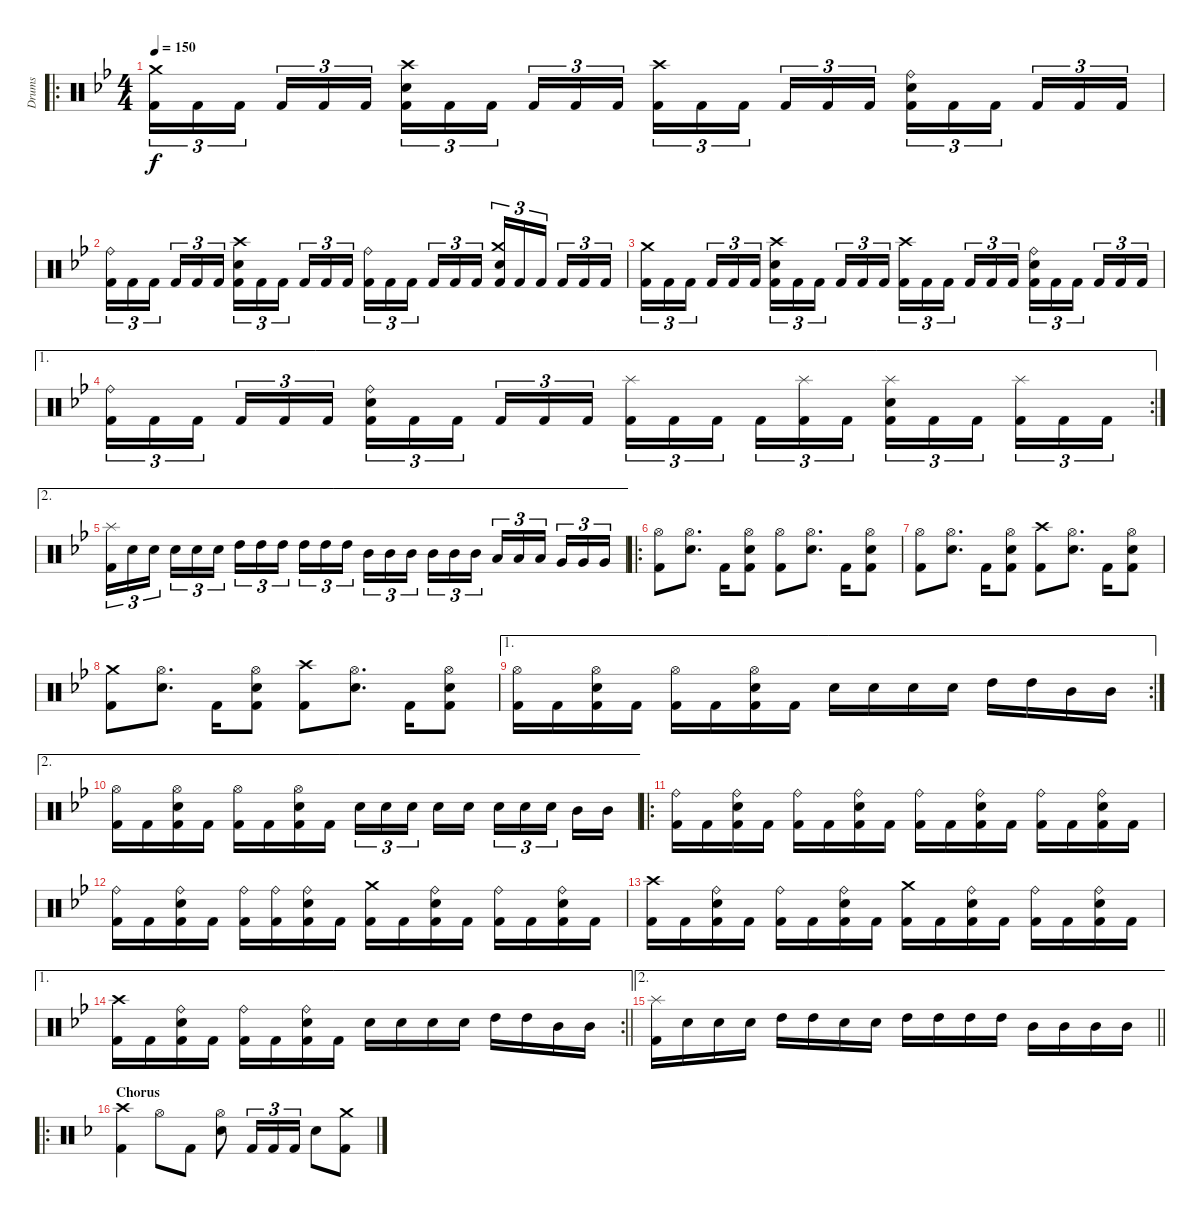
\track ("Drums" "Drums") {instrument percussion}
\staff {score}
\articulation defaults
\ro
\ts (4 4)
\tempo 150
\clef neutral
\ks gminor
("Kick (hit) 2" "Crash medium (hit)").16{tu (3 2) dy f} "Kick (hit) 2".16{tu (3 2)} "Kick (hit) 2".16{tu (3 2) beam splitsecondary} "Kick (hit) 2".16{tu (3 2)} "Kick (hit) 2".16{tu (3 2)} "Kick (hit) 2".16{tu (3 2)} ("Kick (hit) 2" "Snare (hit) 2" "Crash high (hit)").16{tu (3 2)} "Kick (hit) 2".16{tu (3 2)} "Kick (hit) 2".16{tu (3 2) beam splitsecondary} "Kick (hit) 2".16{tu (3 2)} "Kick (hit) 2".16{tu (3 2)} "Kick (hit) 2".16{tu (3 2)} ("Kick (hit) 2" "Crash high (hit)").16{tu (3 2)} "Kick (hit) 2".16{tu (3 2)} "Kick (hit) 2".16{tu (3 2) beam splitsecondary} "Kick (hit) 2".16{tu (3 2)} "Kick (hit) 2".16{tu (3 2)} "Kick (hit) 2".16{tu (3 2)} ("Kick (hit) 2" "Snare (hit) 2" "Ride (bell)").16{tu (3 2)} "Kick (hit) 2".16{tu (3 2)} "Kick (hit) 2".16{tu (3 2) beam splitsecondary} "Kick (hit) 2".16{tu (3 2)} "Kick (hit) 2".16{tu (3 2)} "Kick (hit) 2".16{tu (3 2)} |
("Kick (hit) 2" "Ride (bell)").16{tu (3 2)} "Kick (hit) 2".16{tu (3 2)} "Kick (hit) 2".16{tu (3 2) beam splitsecondary} "Kick (hit) 2".16{tu (3 2)} "Kick (hit) 2".16{tu (3 2)} "Kick (hit) 2".16{tu (3 2)} ("Kick (hit) 2" "Snare (hit) 2" "Crash high (hit)").16{tu (3 2)} "Kick (hit) 2".16{tu (3 2)} "Kick (hit) 2".16{tu (3 2) beam splitsecondary} "Kick (hit) 2".16{tu (3 2)} "Kick (hit) 2".16{tu (3 2)} "Kick (hit) 2".16{tu (3 2)} ("Kick (hit) 2" "Ride (bell)").16{tu (3 2)} "Kick (hit) 2".16{tu (3 2)} "Kick (hit) 2".16{tu (3 2) beam splitsecondary} "Kick (hit) 2".16{tu (3 2)} "Kick (hit) 2".16{tu (3 2)} "Kick (hit) 2".16{tu (3 2)} ("Kick (hit) 2" "Snare (hit) 2" "Crash medium (hit)").16{tu (3 2)} "Kick (hit) 2".16{tu (3 2)} "Kick (hit) 2".16{tu (3 2) beam splitsecondary} "Kick (hit) 2".16{tu (3 2)} "Kick (hit) 2".16{tu (3 2)} "Kick (hit) 2".16{tu (3 2)} |
("Kick (hit) 2" "Crash medium (hit)").16{tu (3 2)} "Kick (hit) 2".16{tu (3 2)} "Kick (hit) 2".16{tu (3 2) beam splitsecondary} "Kick (hit) 2".16{tu (3 2)} "Kick (hit) 2".16{tu (3 2)} "Kick (hit) 2".16{tu (3 2)} ("Kick (hit) 2" "Snare (hit) 2" "Crash high (hit)").16{tu (3 2)} "Kick (hit) 2".16{tu (3 2)} "Kick (hit) 2".16{tu (3 2) beam splitsecondary} "Kick (hit) 2".16{tu (3 2)} "Kick (hit) 2".16{tu (3 2)} "Kick (hit) 2".16{tu (3 2)} ("Kick (hit) 2" "Crash high (hit)").16{tu (3 2)} "Kick (hit) 2".16{tu (3 2)} "Kick (hit) 2".16{tu (3 2) beam splitsecondary} "Kick (hit) 2".16{tu (3 2)} "Kick (hit) 2".16{tu (3 2)} "Kick (hit) 2".16{tu (3 2)} ("Kick (hit) 2" "Snare (hit) 2" "Ride (bell)").16{tu (3 2)} "Kick (hit) 2".16{tu (3 2)} "Kick (hit) 2".16{tu (3 2) beam splitsecondary} "Kick (hit) 2".16{tu (3 2)} "Kick (hit) 2".16{tu (3 2)} "Kick (hit) 2".16{tu (3 2)} |
\ae 1
\rc 2
("Kick (hit) 2" "Ride (bell)").16{tu (3 2)} "Kick (hit) 2".16{tu (3 2)} "Kick (hit) 2".16{tu (3 2) beam splitsecondary} "Kick (hit) 2".16{tu (3 2)} "Kick (hit) 2".16{tu (3 2)} "Kick (hit) 2".16{tu (3 2)} ("Kick (hit) 2" "Snare (hit) 2" "Ride (bell)").16{tu (3 2)} "Kick (hit) 2".16{tu (3 2)} "Kick (hit) 2".16{tu (3 2) beam splitsecondary} "Kick (hit) 2".16{tu (3 2)} "Kick (hit) 2".16{tu (3 2)} "Kick (hit) 2".16{tu (3 2)} ("Kick (hit) 2" "Splash (hit)").16{tu (3 2)} "Kick (hit) 2".16{tu (3 2)} "Kick (hit) 2".16{tu (3 2) beam splitsecondary} "Kick (hit) 2".16{tu (3 2)} ("Kick (hit) 2" "Splash (hit)").16{tu (3 2)} "Kick (hit) 2".16{tu (3 2)} ("Kick (hit) 2" "Snare (hit) 2" "Splash (hit)").16{tu (3 2)} "Kick (hit) 2".16{tu (3 2)} "Kick (hit) 2".16{tu (3 2) beam splitsecondary} ("Kick (hit) 2" "Splash (hit)").16{tu (3 2)} "Kick (hit) 2".16{tu (3 2)} "Kick (hit) 2".16{tu (3 2)} |
\ae 2
("Kick (hit) 2" "Splash (hit)").16{tu (3 2)} "Snare (hit) 2".16{tu (3 2)} "Snare (hit) 2".16{tu (3 2) beam splitsecondary} "Snare (hit) 2".16{tu (3 2)} "Snare (hit) 2".16{tu (3 2)} "Snare (hit) 2".16{tu (3 2)} "High Tom (hit)".16{tu (3 2)} "High Tom (hit)".16{tu (3 2)} "High Tom (hit)".16{tu (3 2) beam splitsecondary} "High Tom (hit)".16{tu (3 2)} "High Tom (hit)".16{tu (3 2)} "High Tom (hit)".16{tu (3 2)} "Mid Tom (hit)".16{tu (3 2)} "Mid Tom (hit)".16{tu (3 2)} "Mid Tom (hit)".16{tu (3 2) beam splitsecondary} "Mid Tom (hit)".16{tu (3 2)} "Mid Tom (hit)".16{tu (3 2)} "Mid Tom (hit)".16{tu (3 2)} "Low Tom (hit)".16{tu (3 2)} "Low Tom (hit)".16{tu (3 2)} "Low Tom (hit)".16{tu (3 2) beam splitsecondary} "Very Low Tom (hit)".16{tu (3 2)} "Very Low Tom (hit)".16{tu (3 2)} "Very Low Tom (hit)".16{tu (3 2)} |
\ro
("Kick (hit) 2" "Hi-Hat (open)").8 ("Snare (hit) 2" "Hi-Hat (open)").8{d} "Kick (hit) 2".16 ("Kick (hit) 2" "Snare (hit) 2" "Hi-Hat (open)").8 ("Kick (hit) 2" "Hi-Hat (open)").8 ("Snare (hit) 2" "Hi-Hat (open)").8{d} "Kick (hit) 2".16 ("Kick (hit) 2" "Snare (hit) 2" "Hi-Hat (open)").8 |
("Kick (hit) 2" "Hi-Hat (open)").8 ("Snare (hit) 2" "Hi-Hat (open)").8{d} "Kick (hit) 2".16 ("Kick (hit) 2" "Snare (hit) 2" "Hi-Hat (open)").8 ("Kick (hit) 2" "Crash high (hit)").8 ("Snare (hit) 2" "Hi-Hat (open)").8{d} "Kick (hit) 2".16 ("Kick (hit) 2" "Snare (hit) 2" "Hi-Hat (open)").8 |
("Kick (hit) 2" "Crash medium (hit)").8 ("Snare (hit) 2" "Hi-Hat (open)").8{d} "Kick (hit) 2".16 ("Kick (hit) 2" "Snare (hit) 2" "Hi-Hat (open)").8 ("Kick (hit) 2" "Crash high (hit)").8 ("Snare (hit) 2" "Hi-Hat (open)").8{d} "Kick (hit) 2".16 ("Kick (hit) 2" "Snare (hit) 2" "Hi-Hat (open)").8 |
\ae 1
\rc 2
("Kick (hit) 2" "Hi-Hat (open)").16 "Kick (hit) 2".16 ("Kick (hit) 2" "Snare (hit) 2" "Hi-Hat (open)").16 "Kick (hit) 2".16 ("Kick (hit) 2" "Hi-Hat (open)").16 "Kick (hit) 2".16 ("Kick (hit) 2" "Snare (hit) 2" "Hi-Hat (open)").16 "Kick (hit) 2".16 "Snare (hit) 2".16 "Snare (hit) 2".16 "Snare (hit) 2".16 "Snare (hit) 2".16 "High Tom (hit)".16 "High Tom (hit)".16 "Mid Tom (hit)".16 "Mid Tom (hit)".16 |
\ae 2
("Kick (hit) 2" "Hi-Hat (open)").16 "Kick (hit) 2".16 ("Kick (hit) 2" "Snare (hit) 2" "Hi-Hat (open)").16 "Kick (hit) 2".16 ("Kick (hit) 2" "Hi-Hat (open)").16 "Kick (hit) 2".16 ("Kick (hit) 2" "Snare (hit) 2" "Hi-Hat (open)").16 "Kick (hit) 2".16 "Snare (hit) 2".16{tu (3 2)} "Snare (hit) 2".16{tu (3 2)} "Snare (hit) 2".16{tu (3 2) beam splitsecondary} "Snare (hit) 2".16 "Snare (hit) 2".16 "Snare (hit) 2".16{tu (3 2)} "Snare (hit) 2".16{tu (3 2)} "Snare (hit) 2".16{tu (3 2) beam splitsecondary} "Mid Tom (hit)".16 "Mid Tom (hit)".16 |
\ro
("Kick (hit) 2" "Ride (bell)").16 "Kick (hit) 2".16 ("Kick (hit) 2" "Snare (hit) 2" "Ride (bell)").16 "Kick (hit) 2".16 ("Kick (hit) 2" "Ride (bell)").16 "Kick (hit) 2".16 ("Kick (hit) 2" "Snare (hit) 2" "Ride (bell)").16 "Kick (hit) 2".16 ("Kick (hit) 2" "Ride (bell)").16 "Kick (hit) 2".16 ("Kick (hit) 2" "Snare (hit) 2" "Ride (bell)").16 "Kick (hit) 2".16 ("Kick (hit) 2" "Ride (bell)").16 "Kick (hit) 2".16 ("Kick (hit) 2" "Snare (hit) 2" "Ride (bell)").16 "Kick (hit) 2".16 |
("Kick (hit) 2" "Ride (bell)").16 "Kick (hit) 2".16 ("Kick (hit) 2" "Snare (hit) 2" "Ride (bell)").16 "Kick (hit) 2".16 ("Kick (hit) 2" "Ride (bell)").16 ("Kick (hit) 2" "Ride (bell)").16 ("Kick (hit) 2" "Snare (hit) 2" "Ride (bell)").16 "Kick (hit) 2".16 ("Kick (hit) 2" "Crash medium (hit)").16 "Kick (hit) 2".16 ("Kick (hit) 2" "Snare (hit) 2" "Ride (bell)").16 "Kick (hit) 2".16 ("Kick (hit) 2" "Ride (bell)").16 "Kick (hit) 2".16 ("Kick (hit) 2" "Snare (hit) 2" "Ride (bell)").16 "Kick (hit) 2".16 |
("Kick (hit) 2" "Crash high (hit)").16 "Kick (hit) 2".16 ("Kick (hit) 2" "Snare (hit) 2" "Ride (bell)").16 "Kick (hit) 2".16 ("Kick (hit) 2" "Ride (bell)").16 "Kick (hit) 2".16 ("Kick (hit) 2" "Snare (hit) 2" "Ride (bell)").16 "Kick (hit) 2".16 ("Kick (hit) 2" "Crash medium (hit)").16 "Kick (hit) 2".16 ("Kick (hit) 2" "Snare (hit) 2" "Ride (bell)").16 "Kick (hit) 2".16 ("Kick (hit) 2" "Ride (bell)").16 "Kick (hit) 2".16 ("Kick (hit) 2" "Snare (hit) 2" "Ride (bell)").16 "Kick (hit) 2".16 |
\ae 1
\rc 2
\barLineRight lightlight
("Kick (hit) 2" "Crash high (hit)").16 "Kick (hit) 2".16 ("Kick (hit) 2" "Snare (hit) 2" "Ride (bell)").16 "Kick (hit) 2".16 ("Kick (hit) 2" "Ride (bell)").16 "Kick (hit) 2".16 ("Kick (hit) 2" "Snare (hit) 2" "Ride (bell)").16 "Kick (hit) 2".16 "Snare (hit) 2".16 "Snare (hit) 2".16 "Snare (hit) 2".16 "Snare (hit) 2".16 "High Tom (hit)".16 "High Tom (hit)".16 "Mid Tom (hit)".16 "Mid Tom (hit)".16 |
\ae 2
\barLineRight lightlight
("Kick (hit) 2" "Splash (hit)").16 "Snare (hit) 2".16 "Snare (hit) 2".16 "Snare (hit) 2".16 "High Tom (hit)".16 "High Tom (hit)".16 "Snare (hit) 2".16 "Snare (hit) 2".16 "High Tom (hit)".16 "High Tom (hit)".16 "High Tom (hit)".16 "High Tom (hit)".16 "Mid Tom (hit)".16 "Mid Tom (hit)".16 "Mid Tom (hit)".16 "Mid Tom (hit)".16 |
\ro
\section ("" "Chorus")
\ks dminor
("Kick (hit) 2" "Crash high (hit)").4 "Hi-Hat (open)".8 "Kick (hit) 2".8 ("Snare (hit) 2" "Hi-Hat (open)").8 "Kick (hit) 2".16{tu (3 2)} "Kick (hit) 2".16{tu (3 2)} "Kick (hit) 2".16{tu (3 2)} "Snare (hit) 2".8 ("Kick (hit) 2" "Crash medium (hit)").8
